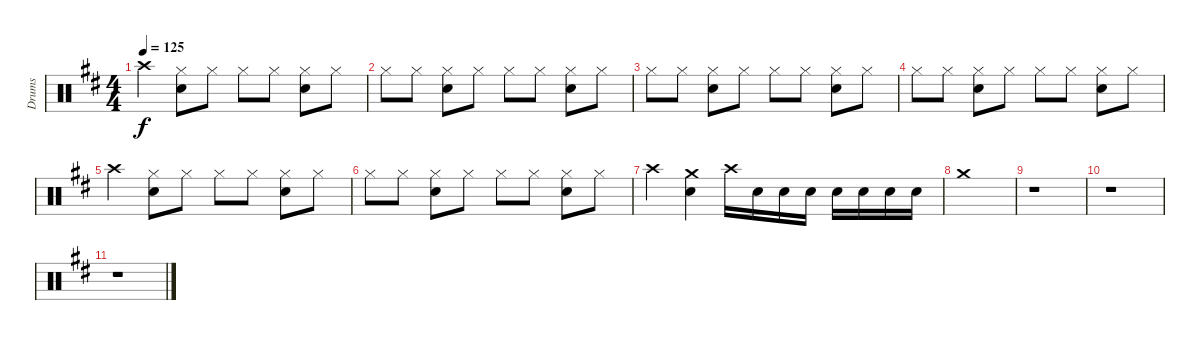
\track ("Drums" "Drums") {instrument percussion}
\staff {score}
\articulation defaults
\ts (4 4)
\tempo 125
\clef neutral
\ks d "Crash high (hit)".4{dy f}
("Hi-Hat (closed)" "Snare (hit) 2").8 "Hi-Hat (closed)".8 "Hi-Hat (closed)".8 "Hi-Hat (closed)".8 ("Hi-Hat (closed)" "Snare (hit) 2").8 "Hi-Hat (closed)".8 |
"Hi-Hat (closed)".8 "Hi-Hat (closed)".8 ("Hi-Hat (closed)" "Snare (hit) 2").8 "Hi-Hat (closed)".8 "Hi-Hat (closed)".8 "Hi-Hat (closed)".8 ("Hi-Hat (closed)" "Snare (hit) 2").8 "Hi-Hat (closed)".8 |
"Hi-Hat (closed)".8 "Hi-Hat (closed)".8 ("Hi-Hat (closed)" "Snare (hit) 2").8 "Hi-Hat (closed)".8 "Hi-Hat (closed)".8 "Hi-Hat (closed)".8 ("Hi-Hat (closed)" "Snare (hit) 2").8 "Hi-Hat (closed)".8 |
"Hi-Hat (closed)".8 "Hi-Hat (closed)".8 ("Hi-Hat (closed)" "Snare (hit) 2").8 "Hi-Hat (closed)".8 "Hi-Hat (closed)".8 "Hi-Hat (closed)".8 ("Hi-Hat (closed)" "Snare (hit) 2").8 "Hi-Hat (closed)".8 |
"Crash high (hit)".4 ("Hi-Hat (closed)" "Snare (hit) 2").8 "Hi-Hat (closed)".8 "Hi-Hat (closed)".8 "Hi-Hat (closed)".8 ("Hi-Hat (closed)" "Snare (hit) 2").8 "Hi-Hat (closed)".8 |
"Hi-Hat (closed)".8 "Hi-Hat (closed)".8 ("Hi-Hat (closed)" "Snare (hit) 2").8 "Hi-Hat (closed)".8 "Hi-Hat (closed)".8 "Hi-Hat (closed)".8 ("Hi-Hat (closed)" "Snare (hit) 2").8 "Hi-Hat (closed)".8 |
"Crash high (hit)".4 ("Crash medium (hit)" "Snare (hit) 2").4 "Crash high (hit)".16 "Snare (hit) 2".16 "Snare (hit) 2".16 "Snare (hit) 2".16 "Snare (hit) 2".16 "Snare (hit) 2".16 "Snare (hit) 2".16 "Snare (hit) 2".16 |
"Crash medium (hit)".1 |
r.1 |
r.1 |
r.1
